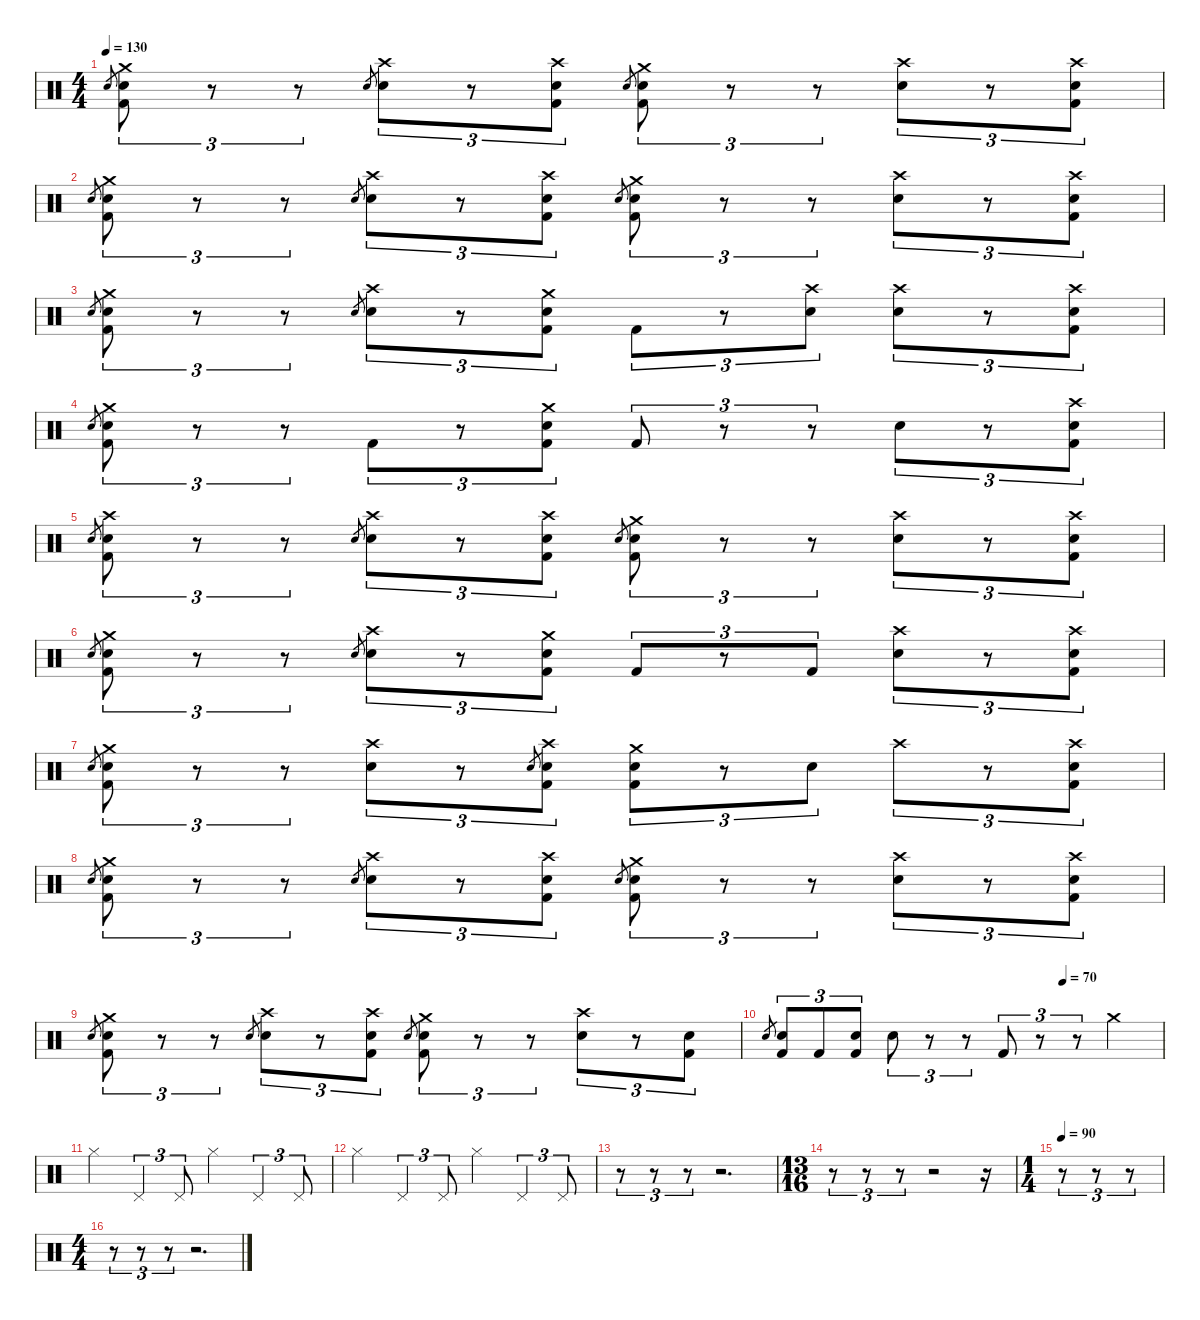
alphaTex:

\defaultSystemsLayout 4
\hideDynamics
\bracketExtendMode nobrackets
\singleTrackTrackNamePolicy hidden
\multiTrackTrackNamePolicy hidden
\firstSystemTrackNameMode fullname
\firstSystemTrackNameOrientation horizontal
\otherSystemsTrackNameOrientation horizontal
\track ("Drums" "drm.") {instrument percussion}
\staff {score}
\articulation defaults
\ts (4 4)
\tempo 130
\clef neutral
\ks c "Snare (hit) 2".8{gr dy ppp beam Up}
("Crash medium (hit)" "Snare (hit) 2" "Kick (hit) 2").8{tu (3 2) dy f beam Down} r.8{tu (3 2) beam Down} r.8{tu (3 2) beam Down} "Snare (hit) 2".8{gr dy ppp beam Up} ("Crash high (hit)" "Snare (hit) 2").8{tu (3 2) dy f beam Down} r.8{tu (3 2) beam Down} ("Crash high (hit)" "Snare (hit) 2" "Kick (hit) 2").8{tu (3 2) beam Down} "Snare (hit) 2".8{gr dy ppp beam Up} ("Crash medium (hit)" "Snare (hit) 2" "Kick (hit) 2").8{tu (3 2) dy f beam Down} r.8{tu (3 2) beam Down} r.8{tu (3 2) beam Down} ("Crash high (hit)" "Snare (hit) 2").8{tu (3 2) beam Down} r.8{tu (3 2) beam Down} ("Crash high (hit)" "Snare (hit) 2" "Kick (hit) 2").8{tu (3 2) beam Down} |
"Snare (hit) 2".8{gr dy ppp beam Up} ("Crash medium (hit)" "Snare (hit) 2" "Kick (hit) 2").8{tu (3 2) dy f beam Down} r.8{tu (3 2) beam Down} r.8{tu (3 2) beam Down} "Snare (hit) 2".8{gr dy ppp beam Up} ("Crash high (hit)" "Snare (hit) 2").8{tu (3 2) dy f beam Down} r.8{tu (3 2) beam Down} ("Crash high (hit)" "Snare (hit) 2" "Kick (hit) 2").8{tu (3 2) beam Down} "Snare (hit) 2".8{gr dy ppp beam Up} ("Crash medium (hit)" "Snare (hit) 2" "Kick (hit) 2").8{tu (3 2) dy f beam Down} r.8{tu (3 2) beam Down} r.8{tu (3 2) beam Down} ("Crash high (hit)" "Snare (hit) 2").8{tu (3 2) beam Down} r.8{tu (3 2) beam Down} ("Crash high (hit)" "Snare (hit) 2" "Kick (hit) 2").8{tu (3 2) beam Down} |
"Snare (hit) 2".8{gr dy ppp beam Up} ("Crash medium (hit)" "Snare (hit) 2" "Kick (hit) 2").8{tu (3 2) dy f beam Down} r.8{tu (3 2) beam Down} r.8{tu (3 2) beam Down} "Snare (hit) 2".8{gr dy ppp beam Up} ("Crash high (hit)" "Snare (hit) 2").8{tu (3 2) dy f beam Down} r.8{tu (3 2) beam Down} ("Crash medium (hit)" "Snare (hit) 2" "Kick (hit) 2").8{tu (3 2) beam Down} "Kick (hit) 2".8{tu (3 2) beam Down} r.8{tu (3 2) beam Down} ("Crash high (hit)" "Snare (hit) 2").8{tu (3 2) beam Down} ("Crash high (hit)" "Snare (hit) 2").8{tu (3 2) beam Down} r.8{tu (3 2) beam Down} ("Crash high (hit)" "Snare (hit) 2" "Kick (hit) 2").8{tu (3 2) beam Down} |
"Snare (hit) 2".8{gr dy ppp beam Up} ("Crash medium (hit)" "Snare (hit) 2" "Kick (hit) 2").8{tu (3 2) dy f beam Down} r.8{tu (3 2) beam Down} r.8{tu (3 2) beam Down} "Kick (hit) 2".8{tu (3 2) dy fff beam Down} r.8{tu (3 2) beam Down} ("Crash medium (hit)" "Snare (hit) 2" "Kick (hit) 2").8{tu (3 2) dy f beam Down} "Kick (hit) 2".8{tu (3 2) dy fff beam Up} r.8{tu (3 2) beam Up} r.8{tu (3 2) beam Up} "Snare (hit) 2".8{tu (3 2) dy f beam Down} r.8{tu (3 2) beam Down} ("Crash high (hit)" "Snare (hit) 2" "Kick (hit) 2").8{tu (3 2) beam Down} |
"Snare (hit) 2".8{gr dy ppp beam Up} ("Crash high (hit)" "Snare (hit) 2" "Kick (hit) 2").8{tu (3 2) dy f beam Down} r.8{tu (3 2) beam Down} r.8{tu (3 2) beam Down} "Snare (hit) 2".8{gr dy ppp beam Up} ("Crash high (hit)" "Snare (hit) 2").8{tu (3 2) dy f beam Down} r.8{tu (3 2) beam Down} ("Crash high (hit)" "Snare (hit) 2" "Kick (hit) 2").8{tu (3 2) beam Down} "Snare (hit) 2".8{gr dy ppp beam Up} ("Crash medium (hit)" "Snare (hit) 2" "Kick (hit) 2").8{tu (3 2) dy f beam Down} r.8{tu (3 2) beam Down} r.8{tu (3 2) beam Down} ("Crash high (hit)" "Snare (hit) 2").8{tu (3 2) beam Down} r.8{tu (3 2) beam Down} ("Crash high (hit)" "Snare (hit) 2" "Kick (hit) 2").8{tu (3 2) beam Down} |
"Snare (hit) 2".8{gr dy ppp beam Up} ("Crash medium (hit)" "Snare (hit) 2" "Kick (hit) 2").8{tu (3 2) dy f beam Down} r.8{tu (3 2) beam Down} r.8{tu (3 2) beam Down} "Snare (hit) 2".8{gr dy ppp beam Up} ("Crash high (hit)" "Snare (hit) 2").8{tu (3 2) dy f beam Down} r.8{tu (3 2) beam Down} ("Crash medium (hit)" "Snare (hit) 2" "Kick (hit) 2").8{tu (3 2) beam Down} "Kick (hit) 2".8{tu (3 2) beam Up} r.8{tu (3 2) beam Up} "Kick (hit) 2".8{tu (3 2) beam Up} ("Crash high (hit)" "Snare (hit) 2").8{tu (3 2) beam Down} r.8{tu (3 2) beam Down} ("Crash high (hit)" "Snare (hit) 2" "Kick (hit) 2").8{tu (3 2) beam Down} |
"Snare (hit) 2".8{gr dy ppp beam Up} ("Crash medium (hit)" "Snare (hit) 2" "Kick (hit) 2").8{tu (3 2) dy f beam Down} r.8{tu (3 2) beam Down} r.8{tu (3 2) beam Down} ("Crash high (hit)" "Snare (hit) 2").8{tu (3 2) beam Down} r.8{tu (3 2) beam Down} "Snare (hit) 2".8{gr dy ppp beam Up} ("Crash high (hit)" "Snare (hit) 2" "Kick (hit) 2").8{tu (3 2) dy f beam Down} ("Crash medium (hit)" "Snare (hit) 2" "Kick (hit) 2").8{tu (3 2) beam Down} r.8{tu (3 2) beam Down} "Snare (hit) 2".8{tu (3 2) beam Down} "Crash high (hit)".8{tu (3 2) beam Down} r.8{tu (3 2) beam Down} ("Crash high (hit)" "Snare (hit) 2" "Kick (hit) 2").8{tu (3 2) beam Down} |
"Snare (hit) 2".8{gr dy ppp beam Up} ("Crash medium (hit)" "Snare (hit) 2" "Kick (hit) 2").8{tu (3 2) dy f beam Down} r.8{tu (3 2) beam Down} r.8{tu (3 2) beam Down} "Snare (hit) 2".8{gr dy ppp beam Up} ("Crash high (hit)" "Snare (hit) 2").8{tu (3 2) dy f beam Down} r.8{tu (3 2) beam Down} ("Crash high (hit)" "Snare (hit) 2" "Kick (hit) 2").8{tu (3 2) beam Down} "Snare (hit) 2".8{gr dy ppp beam Up} ("Crash medium (hit)" "Snare (hit) 2" "Kick (hit) 2").8{tu (3 2) dy f beam Down} r.8{tu (3 2) beam Down} r.8{tu (3 2) beam Down} ("Crash high (hit)" "Snare (hit) 2").8{tu (3 2) beam Down} r.8{tu (3 2) beam Down} ("Crash high (hit)" "Snare (hit) 2" "Kick (hit) 2").8{tu (3 2) beam Down} |
"Snare (hit) 2".8{gr dy ppp beam Up} ("Crash medium (hit)" "Snare (hit) 2" "Kick (hit) 2").8{tu (3 2) dy f beam Down} r.8{tu (3 2) beam Down} r.8{tu (3 2) beam Down} "Snare (hit) 2".8{gr dy ppp beam Up} ("Crash high (hit)" "Snare (hit) 2").8{tu (3 2) dy f beam Down} r.8{tu (3 2) beam Down} ("Crash high (hit)" "Snare (hit) 2" "Kick (hit) 2").8{tu (3 2) beam Down} "Snare (hit) 2".8{gr dy ppp beam Up} ("Crash medium (hit)" "Snare (hit) 2" "Kick (hit) 2").8{tu (3 2) dy f beam Down} r.8{tu (3 2) beam Down} r.8{tu (3 2) beam Down} ("Crash high (hit)" "Snare (hit) 2").8{tu (3 2) beam Down} r.8{tu (3 2) beam Down} ("Snare (hit) 2" "Kick (hit) 2").8{tu (3 2) beam Down} |
\tempo (70 0.75)
"Snare (hit) 2".8{gr dy ppp beam Up} ("Snare (hit) 2" "Kick (hit) 2").8{tu (3 2) dy f beam Up} "Kick (hit) 2".8{tu (3 2) beam Up} ("Snare (hit) 2" "Kick (hit) 2").8{tu (3 2) beam Up} "Snare (hit) 2".8{tu (3 2) beam Down} r.8{tu (3 2) beam Down} r.8{tu (3 2) beam Down} "Kick (hit) 2".8{tu (3 2) beam Up} r.8{tu (3 2) beam Up} r.8{tu (3 2) beam Up} "Crash medium (hit)".4{beam Down} |
"Hi-Hat (closed)".4{beam Down} "Pedal Hi-Hat (hit)".4{tu (3 2) beam Up} "Pedal Hi-Hat (hit)".8{tu (3 2) beam Up} "Hi-Hat (closed)".4{beam Down} "Pedal Hi-Hat (hit)".4{tu (3 2) beam Up} "Pedal Hi-Hat (hit)".8{tu (3 2) beam Up} |
"Hi-Hat (closed)".4{beam Down} "Pedal Hi-Hat (hit)".4{tu (3 2) beam Up} "Pedal Hi-Hat (hit)".8{tu (3 2) beam Up} "Hi-Hat (closed)".4{beam Down} "Pedal Hi-Hat (hit)".4{tu (3 2) beam Up} "Pedal Hi-Hat (hit)".8{tu (3 2) beam Up} |
r.8{tu (3 2) beam Down} r.8{tu (3 2) beam Down} r.8{tu (3 2) beam Down} r.2{d beam Down} |
\ts (13 16)
r.8{tu (3 2) beam Down} r.8{tu (3 2) beam Down} r.8{tu (3 2) beam Down} r.2{beam Down} r.16{beam Down} |
\ts (1 4)
\tempo 90
r.8{tu (3 2) beam Down} r.8{tu (3 2) beam Down} r.8{tu (3 2) beam Down} |
\ts (4 4)
r.8{tu (3 2) beam Down} r.8{tu (3 2) beam Down} r.8{tu (3 2) beam Down} r.2{d beam Down}
